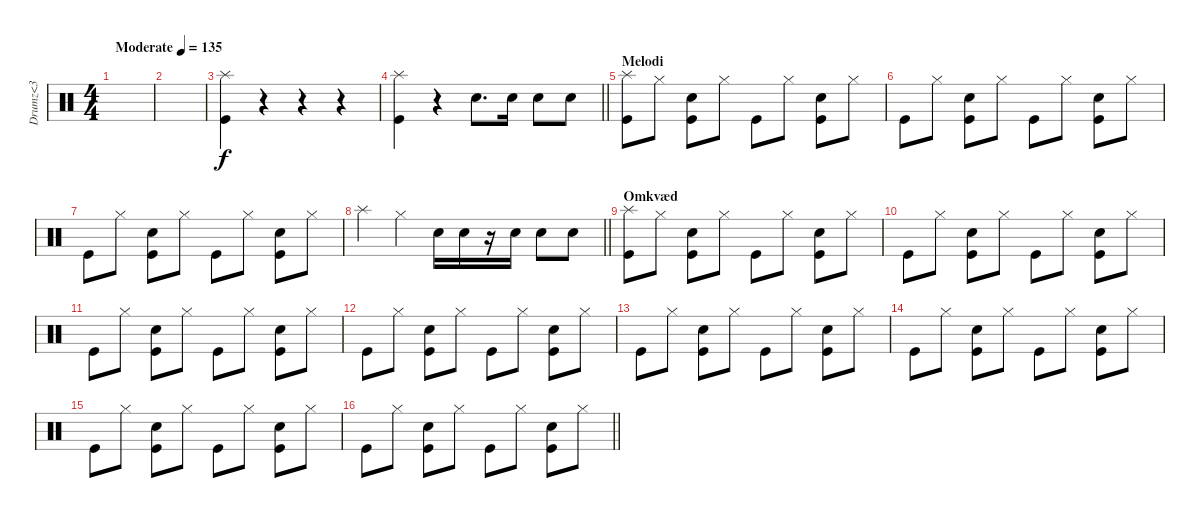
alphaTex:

\track ("Drumz<3" "Drumz<3") {instrument percussion}
\staff {score}
\articulation defaults
\ts (4 4)
\tempo (135 "Moderate")
\clef neutral
\ks c
|
|
("Splash (hit)" "Kick (hit)").4 r.4 r.4 r.4 |
\barLineRight lightlight
("Splash (hit)" "Kick (hit)").4 r.4 "Snare (hit) 2".8{d} "Snare (hit) 2".16 "Snare (hit) 2".8 "Snare (hit) 2".8 |
\section ("" "Melodi")
("Splash (hit)" "Kick (hit)").8 "Hi-Hat (closed)".8 ("Kick (hit)" "Snare (hit) 2").8 "Hi-Hat (closed)".8 "Kick (hit)".8 "Hi-Hat (closed)".8 ("Kick (hit)" "Snare (hit) 2").8 "Hi-Hat (closed)".8 |
"Kick (hit)".8 "Hi-Hat (closed)".8 ("Kick (hit)" "Snare (hit) 2").8 "Hi-Hat (closed)".8 "Kick (hit)".8 "Hi-Hat (closed)".8 ("Kick (hit)" "Snare (hit) 2").8 "Hi-Hat (closed)".8 |
"Kick (hit)".8 "Hi-Hat (closed)".8 ("Kick (hit)" "Snare (hit) 2").8 "Hi-Hat (closed)".8 "Kick (hit)".8 "Hi-Hat (closed)".8 ("Kick (hit)" "Snare (hit) 2").8 "Hi-Hat (closed)".8 |
\barLineRight lightlight "Splash (hit)".4 "Hi-Hat (closed)".4 "Snare (hit) 2".16 "Snare (hit) 2".16
r.16 "Snare (hit) 2".16 "Snare (hit) 2".8 "Snare (hit) 2".8 |
\section ("" "Omkvæd")
("Splash (hit)" "Kick (hit)").8 "Hi-Hat (closed)".8 ("Kick (hit)" "Snare (hit) 2").8 "Hi-Hat (closed)".8 "Kick (hit)".8 "Hi-Hat (closed)".8 ("Kick (hit)" "Snare (hit) 2").8 "Hi-Hat (closed)".8 |
"Kick (hit)".8 "Hi-Hat (closed)".8 ("Kick (hit)" "Snare (hit) 2").8 "Hi-Hat (closed)".8 "Kick (hit)".8 "Hi-Hat (closed)".8 ("Kick (hit)" "Snare (hit) 2").8 "Hi-Hat (closed)".8 |
"Kick (hit)".8 "Hi-Hat (closed)".8 ("Kick (hit)" "Snare (hit) 2").8 "Hi-Hat (closed)".8 "Kick (hit)".8 "Hi-Hat (closed)".8 ("Kick (hit)" "Snare (hit) 2").8 "Hi-Hat (closed)".8 |
"Kick (hit)".8 "Hi-Hat (closed)".8 ("Kick (hit)" "Snare (hit) 2").8 "Hi-Hat (closed)".8 "Kick (hit)".8 "Hi-Hat (closed)".8 ("Kick (hit)" "Snare (hit) 2").8 "Hi-Hat (closed)".8 |
"Kick (hit)".8 "Hi-Hat (closed)".8 ("Kick (hit)" "Snare (hit) 2").8 "Hi-Hat (closed)".8 "Kick (hit)".8 "Hi-Hat (closed)".8 ("Kick (hit)" "Snare (hit) 2").8 "Hi-Hat (closed)".8 |
"Kick (hit)".8 "Hi-Hat (closed)".8 ("Kick (hit)" "Snare (hit) 2").8 "Hi-Hat (closed)".8 "Kick (hit)".8 "Hi-Hat (closed)".8 ("Kick (hit)" "Snare (hit) 2").8 "Hi-Hat (closed)".8 |
"Kick (hit)".8 "Hi-Hat (closed)".8 ("Kick (hit)" "Snare (hit) 2").8 "Hi-Hat (closed)".8 "Kick (hit)".8 "Hi-Hat (closed)".8 ("Kick (hit)" "Snare (hit) 2").8 "Hi-Hat (closed)".8 |
\barLineRight lightlight "Kick (hit)".8 "Hi-Hat (closed)".8
("Kick (hit)" "Snare (hit) 2").8 "Hi-Hat (closed)".8 "Kick (hit)".8 "Hi-Hat (closed)".8 ("Kick (hit)" "Snare (hit) 2").8 "Hi-Hat (closed)".8
